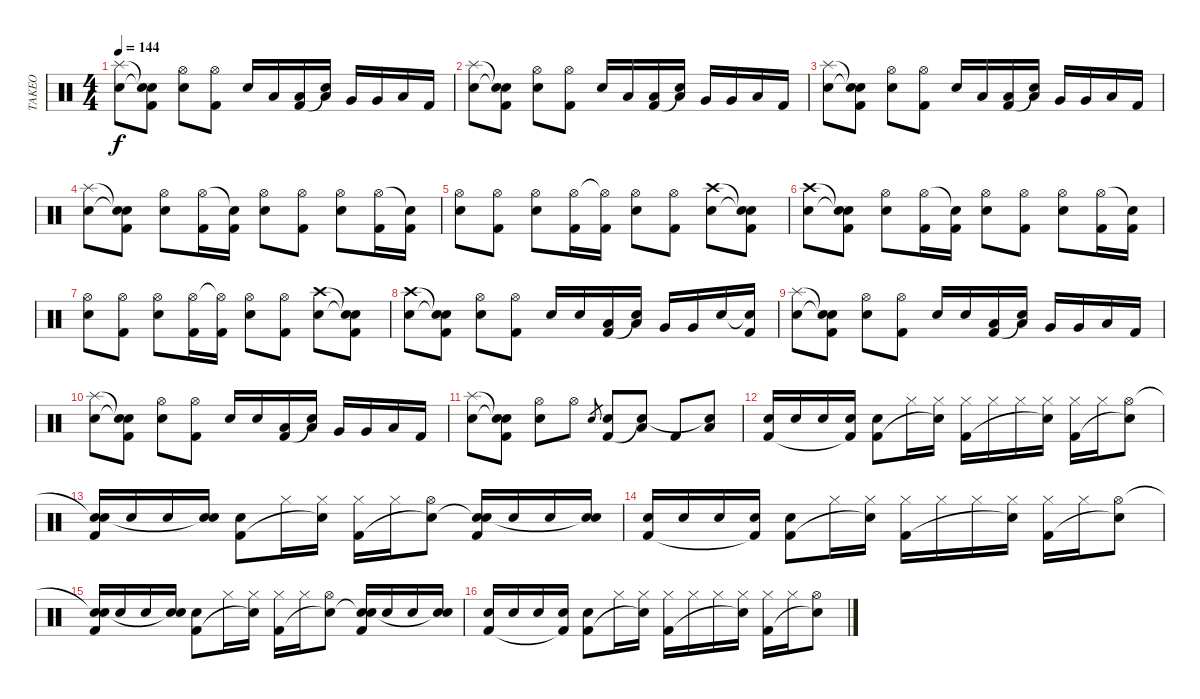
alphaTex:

\track ("TAKEO" "TAKEO") {instrument percussion}
\staff {score}
\articulation defaults
\ts (4 4)
\tempo 144
\clef neutral
\ks c
("Splash (hit)" "Electric Snare (hit)").8{dy f} ("Snare (hit)"{t} "Snare (hit)"{t} "Kick (hit) 2").8 ("Hi-Hat (open)" "Electric Snare (hit)").8 ("Hi-Hat (open)" "Kick (hit) 2").8 "Electric Snare (hit)".16 "Low Tom (hit)".16 ("Low Tom (hit)" "Kick (hit) 2").16 ("Low Tom (hit)" "Snare (hit)"{t}).16 "Very Low Tom (hit)".16 "Very Low Tom (hit)".16 "Low Floor Tom (hit)".16 "Kick (hit) 2".16 |
("Splash (hit)" "Electric Snare (hit)").8 ("Snare (hit)"{t} "Snare (hit)"{t} "Kick (hit) 2").8 ("Hi-Hat (open)" "Electric Snare (hit)").8 ("Hi-Hat (open)" "Kick (hit) 2").8 "Electric Snare (hit)".16 "Low Tom (hit)".16 ("Low Tom (hit)" "Kick (hit) 2").16 ("Low Tom (hit)" "Snare (hit)"{t}).16 "Very Low Tom (hit)".16 "Very Low Tom (hit)".16 "Low Floor Tom (hit)".16 "Kick (hit) 2".16 |
("Splash (hit)" "Electric Snare (hit)").8 ("Snare (hit)"{t} "Snare (hit)"{t} "Kick (hit) 2").8 ("Hi-Hat (open)" "Electric Snare (hit)").8 ("Hi-Hat (open)" "Kick (hit) 2").8 "Electric Snare (hit)".16 "Low Tom (hit)".16 ("Low Tom (hit)" "Kick (hit) 2").16 ("Low Tom (hit)" "Snare (hit)"{t}).16 "Very Low Tom (hit)".16 "Very Low Tom (hit)".16 "Low Floor Tom (hit)".16 "Kick (hit) 2".16 |
("Splash (hit)" "Electric Snare (hit)").8 ("Snare (hit)"{t} "Snare (hit)"{t} "Kick (hit) 2").8 ("Hi-Hat (open)" "Electric Snare (hit)").8 ("Hi-Hat (open)" "Kick (hit) 2").16 ("Snare (hit)"{t} "Kick (hit) 2").16 ("Hi-Hat (open)" "Electric Snare (hit)").8 ("Hi-Hat (open)" "Kick (hit) 2").8 ("Hi-Hat (open)" "Electric Snare (hit)").8 ("Hi-Hat (open)" "Kick (hit) 2").16 ("Snare (hit)"{t} "Kick (hit) 2").16 |
("Hi-Hat (open)" "Electric Snare (hit)").8 ("Hi-Hat (open)" "Kick (hit) 2").8 ("Hi-Hat (open)" "Electric Snare (hit)").8 ("Hi-Hat (open)" "Kick (hit) 2").16 ("Hi-Hat (open)"{t} "Kick (hit) 2").16 ("Hi-Hat (open)" "Electric Snare (hit)").8 ("Hi-Hat (open)" "Kick (hit) 2").8 ("Crash high (hit)" "Electric Snare (hit)").8 ("Snare (hit)"{t} "Snare (hit)"{t} "Kick (hit) 2").8 |
("Crash high (hit)" "Electric Snare (hit)").8 ("Snare (hit)"{t} "Snare (hit)"{t} "Kick (hit) 2").8 ("Hi-Hat (open)" "Electric Snare (hit)").8 ("Hi-Hat (open)" "Kick (hit) 2").16 ("Snare (hit)"{t} "Kick (hit) 2").16 ("Hi-Hat (open)" "Electric Snare (hit)").8 ("Hi-Hat (open)" "Kick (hit) 2").8 ("Hi-Hat (open)" "Electric Snare (hit)").8 ("Hi-Hat (open)" "Kick (hit) 2").16 ("Snare (hit)"{t} "Kick (hit) 2").16 |
("Hi-Hat (open)" "Electric Snare (hit)").8 ("Hi-Hat (open)" "Kick (hit) 2").8 ("Hi-Hat (open)" "Electric Snare (hit)").8 ("Hi-Hat (open)" "Kick (hit) 2").16 ("Hi-Hat (open)"{t} "Kick (hit) 2").16 ("Hi-Hat (open)" "Electric Snare (hit)").8 ("Hi-Hat (open)" "Kick (hit) 2").8 ("Crash high (hit)" "Electric Snare (hit)").8 ("Snare (hit)"{t} "Snare (hit)"{t} "Kick (hit) 2").8 |
("Crash high (hit)" "Electric Snare (hit)").8 ("Snare (hit)"{t} "Snare (hit)"{t} "Kick (hit) 2").8 ("Hi-Hat (open)" "Electric Snare (hit)").8 ("Hi-Hat (open)" "Kick (hit) 2").8 "Electric Snare (hit)".16 "Electric Snare (hit)".16 ("Low Tom (hit)" "Kick (hit) 2").16 ("Low Tom (hit)" "Snare (hit)"{t}).16 "Very Low Tom (hit)".16 "Very Low Tom (hit)".16 "Electric Snare (hit)".16 ("Snare (hit)"{t} "Kick (hit) 2").16 |
("Splash (hit)" "Electric Snare (hit)").8 ("Snare (hit)"{t} "Snare (hit)"{t} "Kick (hit) 2").8 ("Hi-Hat (open)" "Electric Snare (hit)").8 ("Hi-Hat (open)" "Kick (hit) 2").8 "Electric Snare (hit)".16 "Electric Snare (hit)".16 ("Low Tom (hit)" "Kick (hit) 2").16 ("Low Tom (hit)" "Snare (hit)"{t}).16 "Very Low Tom (hit)".16 "Very Low Tom (hit)".16 "Low Floor Tom (hit)".16 "Kick (hit) 2".16 |
("Splash (hit)" "Electric Snare (hit)").8 ("Snare (hit)"{t} "Snare (hit)"{t} "Kick (hit) 2").8 ("Hi-Hat (open)" "Electric Snare (hit)").8 ("Hi-Hat (open)" "Kick (hit) 2").8 "Electric Snare (hit)".16 "Electric Snare (hit)".16 ("Low Tom (hit)" "Kick (hit) 2").16 ("Low Tom (hit)" "Snare (hit)"{t}).16 "Very Low Tom (hit)".16 "Very Low Tom (hit)".16 "Low Floor Tom (hit)".16 "Kick (hit) 2".16 |
("Splash (hit)" "Electric Snare (hit)").8 ("Snare (hit)"{t} "Snare (hit)"{t} "Kick (hit) 2").8 ("Hi-Hat (open)" "Electric Snare (hit)").8 "Hi-Hat (open)".8 "Electric Snare (hit)".8{gr} ("Electric Snare (hit)" "Kick (hit) 2").8 ("Low Tom (hit)" "Snare (hit)"{t}).8 "Kick (hit) 2".8 ("Low Floor Tom (hit)" "Snare (hit)"{t}).8 |
("Electric Snare (hit)" "Kick (hit) 2").16 "Electric Snare (hit)".16 "Electric Snare (hit)".16 ("Electric Snare (hit)" "Kick (hit) 2"{t}).16 ("Electric Snare (hit)" "Kick (hit) 2").8 "Hi-Hat (closed)".16 ("Hi-Hat (closed)" "Snare (hit)"{t}).16 ("Hi-Hat (closed)" "Kick (hit) 2").16 "Hi-Hat (closed)".16 "Hi-Hat (closed)".16 ("Hi-Hat (closed)" "Snare (hit)"{t}).16 ("Hi-Hat (closed)" "Kick (hit) 2").16 "Hi-Hat (closed)".16 ("Hi-Hat (open)" "Snare (hit)"{t}).8 |
("Snare (hit)"{t} "Electric Snare (hit)" "Kick (hit) 2").16 "Electric Snare (hit)".16 "Electric Snare (hit)".16 ("Electric Snare (hit)" "Snare (hit)"{t}).16 ("Electric Snare (hit)" "Kick (hit) 2").8 "Hi-Hat (closed)".16 ("Hi-Hat (closed)" "Snare (hit)"{t}).16 ("Hi-Hat (closed)" "Kick (hit) 2").16 "Hi-Hat (closed)".16 ("Hi-Hat (open)" "Snare (hit)"{t}).8 ("Electric Snare (hit)" "Snare (hit)"{t} "Kick (hit) 2").16 "Electric Snare (hit)".16 "Electric Snare (hit)".16 ("Electric Snare (hit)" "Snare (hit)"{t}).16 |
("Electric Snare (hit)" "Kick (hit) 2").16 "Electric Snare (hit)".16 "Electric Snare (hit)".16 ("Electric Snare (hit)" "Kick (hit) 2"{t}).16 ("Electric Snare (hit)" "Kick (hit) 2").8 "Hi-Hat (closed)".16 ("Hi-Hat (closed)" "Snare (hit)"{t}).16 ("Hi-Hat (closed)" "Kick (hit) 2").16 "Hi-Hat (closed)".16 "Hi-Hat (closed)".16 ("Hi-Hat (closed)" "Snare (hit)"{t}).16 ("Hi-Hat (closed)" "Kick (hit) 2").16 "Hi-Hat (closed)".16 ("Hi-Hat (open)" "Snare (hit)"{t}).8 |
("Snare (hit)"{t} "Electric Snare (hit)" "Kick (hit) 2").16 "Electric Snare (hit)".16 "Electric Snare (hit)".16 ("Electric Snare (hit)" "Snare (hit)"{t}).16 ("Electric Snare (hit)" "Kick (hit) 2").8 "Hi-Hat (closed)".16 ("Hi-Hat (closed)" "Snare (hit)"{t}).16 ("Hi-Hat (closed)" "Kick (hit) 2").16 "Hi-Hat (closed)".16 ("Hi-Hat (open)" "Snare (hit)"{t}).8 ("Electric Snare (hit)" "Snare (hit)"{t} "Kick (hit) 2").16 "Electric Snare (hit)".16 "Electric Snare (hit)".16 ("Electric Snare (hit)" "Snare (hit)"{t}).16 |
("Electric Snare (hit)" "Kick (hit) 2").16 "Electric Snare (hit)".16 "Electric Snare (hit)".16 ("Electric Snare (hit)" "Kick (hit) 2"{t}).16 ("Electric Snare (hit)" "Kick (hit) 2").8 "Hi-Hat (closed)".16 ("Hi-Hat (closed)" "Snare (hit)"{t}).16 ("Hi-Hat (closed)" "Kick (hit) 2").16 "Hi-Hat (closed)".16 "Hi-Hat (closed)".16 ("Hi-Hat (closed)" "Snare (hit)"{t}).16 ("Hi-Hat (closed)" "Kick (hit) 2").16 "Hi-Hat (closed)".16 ("Hi-Hat (open)" "Snare (hit)"{t}).8
